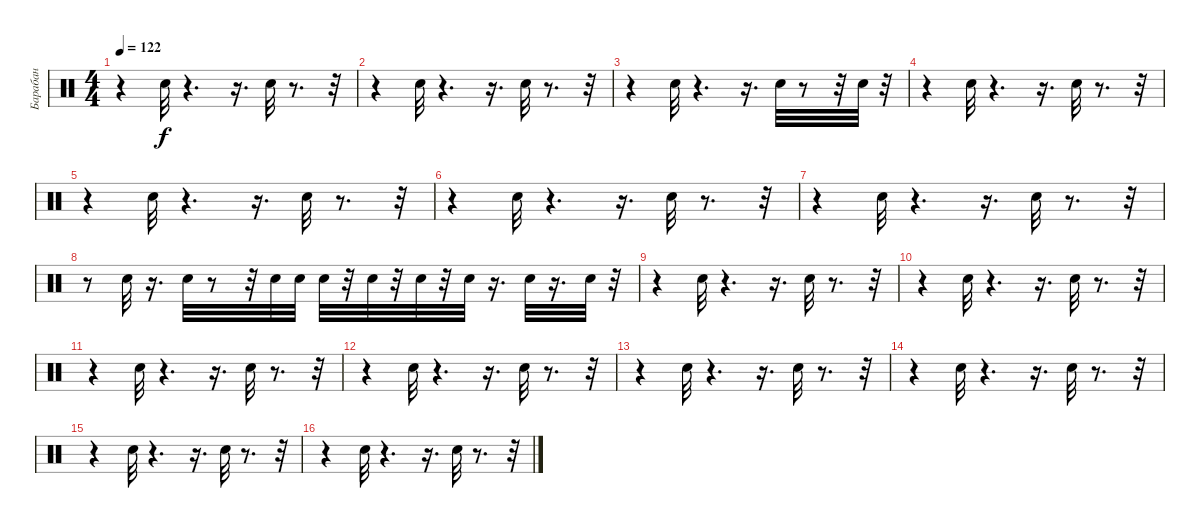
\track ("Барабан" "Барабан") {instrument percussion}
\staff {score}
\articulation defaults
\ts (4 4)
\tempo 122
\clef neutral
\ks c
r.4{dy f} "Snare (hit) 2".32 r.4{d} r.16{d} "Snare (hit) 2".32 r.8{d} r.32 |
r.4 "Snare (hit) 2".32 r.4{d} r.16{d} "Snare (hit) 2".32 r.8{d} r.32 |
r.4 "Snare (hit) 2".32 r.4{d} r.16{d} "Snare (hit) 2".32 r.8 r.32 "Snare (hit) 2".32 r.32 |
r.4 "Snare (hit) 2".32 r.4{d} r.16{d} "Snare (hit) 2".32 r.8{d} r.32 |
r.4 "Snare (hit) 2".32 r.4{d} r.16{d} "Snare (hit) 2".32 r.8{d} r.32 |
r.4 "Snare (hit) 2".32 r.4{d} r.16{d} "Snare (hit) 2".32 r.8{d} r.32 |
r.4 "Snare (hit) 2".32 r.4{d} r.16{d} "Snare (hit) 2".32 r.8{d} r.32 |
r.8 "Snare (hit) 2".32 r.16{d} "Snare (hit) 2".32 r.8 r.32 "Snare (hit) 2".32 "Snare (hit) 2".32 "Snare (hit) 2".32 r.32 "Snare (hit) 2".32 r.32 "Snare (hit) 2".32 r.32 "Snare (hit) 2".32 r.16{d} "Snare (hit) 2".32 r.16{d} "Snare (hit) 2".32 r.32 |
r.4 "Snare (hit) 2".32 r.4{d} r.16{d} "Snare (hit) 2".32 r.8{d} r.32 |
r.4 "Snare (hit) 2".32 r.4{d} r.16{d} "Snare (hit) 2".32 r.8{d} r.32 |
r.4 "Snare (hit) 2".32 r.4{d} r.16{d} "Snare (hit) 2".32 r.8{d} r.32 |
r.4 "Snare (hit) 2".32 r.4{d} r.16{d} "Snare (hit) 2".32 r.8{d} r.32 |
r.4 "Snare (hit) 2".32 r.4{d} r.16{d} "Snare (hit) 2".32 r.8{d} r.32 |
r.4 "Snare (hit) 2".32 r.4{d} r.16{d} "Snare (hit) 2".32 r.8{d} r.32 |
r.4 "Snare (hit) 2".32 r.4{d} r.16{d} "Snare (hit) 2".32 r.8{d} r.32 |
r.4 "Snare (hit) 2".32 r.4{d} r.16{d} "Snare (hit) 2".32 r.8{d} r.32
